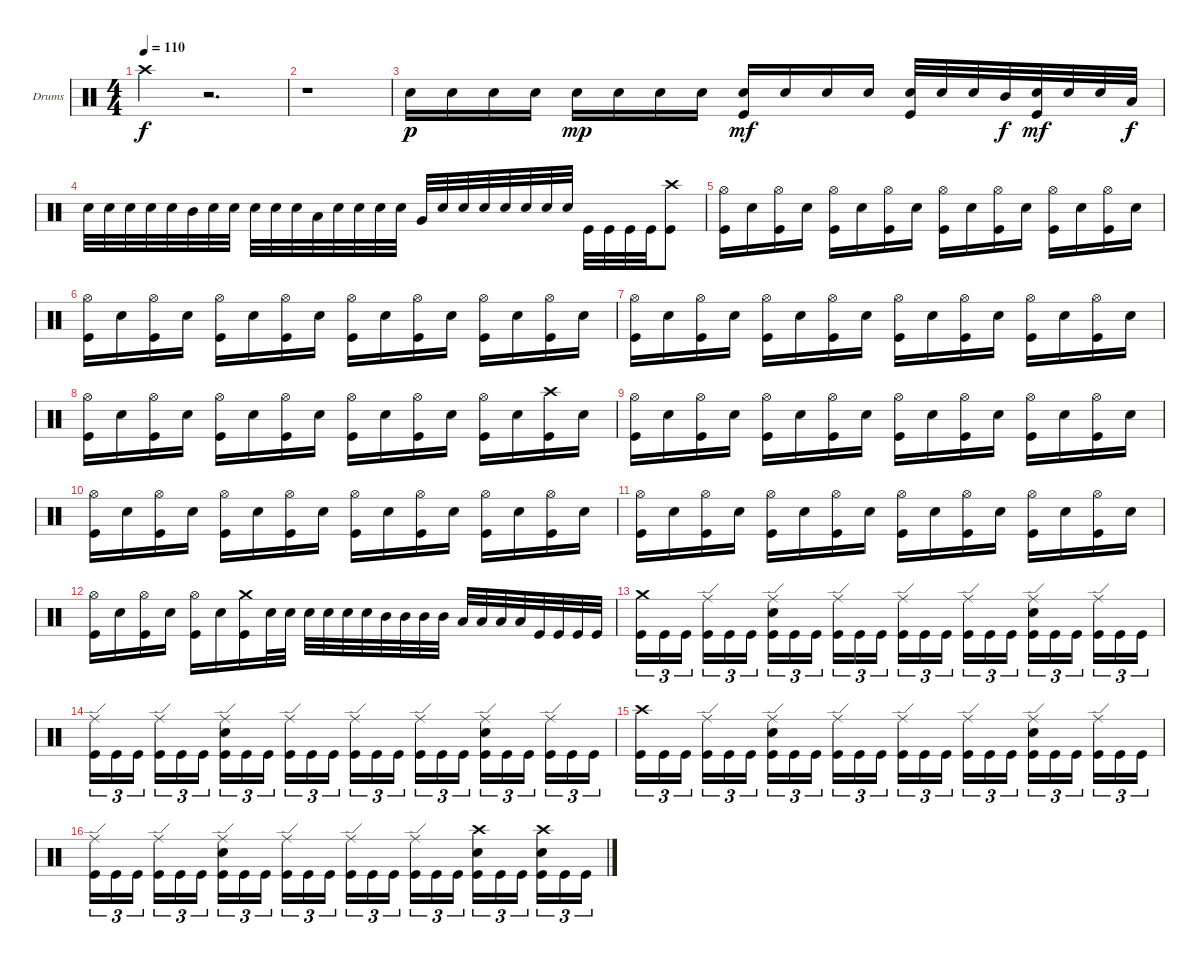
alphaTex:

\defaultSystemsLayout 4
\bracketExtendMode groupsimilarinstruments
\firstSystemTrackNameOrientation horizontal
\otherSystemsTrackNameOrientation horizontal
\track ("Drumkit" "Drums") {instrument percussion}
\staff {score}
\articulation defaults
\ts (4 4)
\tempo 110
\clef neutral
\ks c "Crash high (hit)".4{dy f}
r.2{d} |
r.1 |
"Snare (hit) 2".16{dy p} "Snare (hit) 2".16 "Snare (hit) 2".16 "Snare (hit) 2".16 "Snare (hit) 2".16{dy mp} "Snare (hit) 2".16 "Snare (hit) 2".16 "Snare (hit) 2".16 ("Snare (hit) 2" "Kick (hit)").16{dy mf} "Snare (hit) 2".16 "Snare (hit) 2".16 "Snare (hit) 2".16 ("Snare (hit) 2" "Kick (hit)").32 "Snare (hit) 2".32 "Snare (hit) 2".32 "Mid Tom (hit)".32{dy f} ("Snare (hit) 2" "Kick (hit)").32{dy mf} "Snare (hit) 2".32 "Snare (hit) 2".32 "Low Tom (hit)".32{dy f} |
"Snare (hit) 2".32 "Snare (hit) 2".32 "Snare (hit) 2".32 "Snare (hit) 2".32 "Snare (hit) 2".32 "Mid Tom (hit)".32 "Snare (hit) 2".32 "Snare (hit) 2".32 "Snare (hit) 2".32 "Snare (hit) 2".32 "Snare (hit) 2".32 "Low Tom (hit)".32 "Snare (hit) 2".32 "Snare (hit) 2".32 "Snare (hit) 2".32 "Snare (hit) 2".32 "Very Low Tom (hit)".32 "Snare (hit) 2".32 "Snare (hit) 2".32 "Snare (hit) 2".32 "Snare (hit) 2".32 "Snare (hit) 2".32 "Snare (hit) 2".32 "Snare (hit) 2".32 "Kick (hit)".32 "Kick (hit)".32 "Kick (hit)".32 "Kick (hit)".32 ("Crash high (hit)" "Kick (hit)").8 |
("Hi-Hat (open)" "Kick (hit)").16 "Snare (hit) 2".16 ("Hi-Hat (open)" "Kick (hit)").16 "Snare (hit) 2".16 ("Hi-Hat (open)" "Kick (hit)").16 "Snare (hit) 2".16 ("Hi-Hat (open)" "Kick (hit)").16 "Snare (hit) 2".16 ("Hi-Hat (open)" "Kick (hit)").16 "Snare (hit) 2".16 ("Hi-Hat (open)" "Kick (hit)").16 "Snare (hit) 2".16 ("Hi-Hat (open)" "Kick (hit)").16 "Snare (hit) 2".16 ("Hi-Hat (open)" "Kick (hit)").16 "Snare (hit) 2".16 |
("Hi-Hat (open)" "Kick (hit)").16 "Snare (hit) 2".16 ("Hi-Hat (open)" "Kick (hit)").16 "Snare (hit) 2".16 ("Hi-Hat (open)" "Kick (hit)").16 "Snare (hit) 2".16 ("Hi-Hat (open)" "Kick (hit)").16 "Snare (hit) 2".16 ("Hi-Hat (open)" "Kick (hit)").16 "Snare (hit) 2".16 ("Hi-Hat (open)" "Kick (hit)").16 "Snare (hit) 2".16 ("Hi-Hat (open)" "Kick (hit)").16 "Snare (hit) 2".16 ("Hi-Hat (open)" "Kick (hit)").16 "Snare (hit) 2".16 |
("Hi-Hat (open)" "Kick (hit)").16 "Snare (hit) 2".16 ("Hi-Hat (open)" "Kick (hit)").16 "Snare (hit) 2".16 ("Hi-Hat (open)" "Kick (hit)").16 "Snare (hit) 2".16 ("Hi-Hat (open)" "Kick (hit)").16 "Snare (hit) 2".16 ("Hi-Hat (open)" "Kick (hit)").16 "Snare (hit) 2".16 ("Hi-Hat (open)" "Kick (hit)").16 "Snare (hit) 2".16 ("Hi-Hat (open)" "Kick (hit)").16 "Snare (hit) 2".16 ("Hi-Hat (open)" "Kick (hit)").16 "Snare (hit) 2".16 |
("Hi-Hat (open)" "Kick (hit)").16 "Snare (hit) 2".16 ("Hi-Hat (open)" "Kick (hit)").16 "Snare (hit) 2".16 ("Hi-Hat (open)" "Kick (hit)").16 "Snare (hit) 2".16 ("Hi-Hat (open)" "Kick (hit)").16 "Snare (hit) 2".16 ("Hi-Hat (open)" "Kick (hit)").16 "Snare (hit) 2".16 ("Hi-Hat (open)" "Kick (hit)").16 "Snare (hit) 2".16 ("Hi-Hat (open)" "Kick (hit)").16 "Snare (hit) 2".16 ("Crash high (hit)" "Kick (hit)").16 "Snare (hit) 2".16 |
("Hi-Hat (open)" "Kick (hit)").16 "Snare (hit) 2".16 ("Hi-Hat (open)" "Kick (hit)").16 "Snare (hit) 2".16 ("Hi-Hat (open)" "Kick (hit)").16 "Snare (hit) 2".16 ("Hi-Hat (open)" "Kick (hit)").16 "Snare (hit) 2".16 ("Hi-Hat (open)" "Kick (hit)").16 "Snare (hit) 2".16 ("Hi-Hat (open)" "Kick (hit)").16 "Snare (hit) 2".16 ("Hi-Hat (open)" "Kick (hit)").16 "Snare (hit) 2".16 ("Hi-Hat (open)" "Kick (hit)").16 "Snare (hit) 2".16 |
("Hi-Hat (open)" "Kick (hit)").16 "Snare (hit) 2".16 ("Hi-Hat (open)" "Kick (hit)").16 "Snare (hit) 2".16 ("Hi-Hat (open)" "Kick (hit)").16 "Snare (hit) 2".16 ("Hi-Hat (open)" "Kick (hit)").16 "Snare (hit) 2".16 ("Hi-Hat (open)" "Kick (hit)").16 "Snare (hit) 2".16 ("Hi-Hat (open)" "Kick (hit)").16 "Snare (hit) 2".16 ("Hi-Hat (open)" "Kick (hit)").16 "Snare (hit) 2".16 ("Hi-Hat (open)" "Kick (hit)").16 "Snare (hit) 2".16 |
("Hi-Hat (open)" "Kick (hit)").16 "Snare (hit) 2".16 ("Hi-Hat (open)" "Kick (hit)").16 "Snare (hit) 2".16 ("Hi-Hat (open)" "Kick (hit)").16 "Snare (hit) 2".16 ("Hi-Hat (open)" "Kick (hit)").16 "Snare (hit) 2".16 ("Hi-Hat (open)" "Kick (hit)").16 "Snare (hit) 2".16 ("Hi-Hat (open)" "Kick (hit)").16 "Snare (hit) 2".16 ("Hi-Hat (open)" "Kick (hit)").16 "Snare (hit) 2".16 ("Hi-Hat (open)" "Kick (hit)").16 "Snare (hit) 2".16 |
("Hi-Hat (open)" "Kick (hit)").16 "Snare (hit) 2".16 ("Hi-Hat (open)" "Kick (hit)").16 "Snare (hit) 2".16 ("Hi-Hat (open)" "Kick (hit)").16 "Snare (hit) 2".16 ("Crash medium (hit)" "Kick (hit)").16 "Snare (hit) 2".32 "Snare (hit) 2".32 "Snare (hit) 2".32 "Snare (hit) 2".32 "Snare (hit) 2".32 "Snare (hit) 2".32 "Mid Tom (hit)".32 "Mid Tom (hit)".32 "Mid Tom (hit)".32 "Mid Tom (hit)".32 "Low Tom (hit)".32 "Low Tom (hit)".32 "Low Tom (hit)".32 "Low Tom (hit)".32 "Kick (hit)".32 "Kick (hit)".32 "Kick (hit)".32 "Kick (hit)".32 |
("Crash medium (hit)" "Kick (hit)").16{tu (3 2)} "Kick (hit)".16{tu (3 2)} "Kick (hit)".16{tu (3 2)} ("Ride (edge)" "Kick (hit)").16{tu (3 2)} "Kick (hit)".16{tu (3 2)} "Kick (hit)".16{tu (3 2)} ("Ride (edge)" "Snare (hit) 2" "Kick (hit)").16{tu (3 2)} "Kick (hit)".16{tu (3 2)} "Kick (hit)".16{tu (3 2)} ("Ride (edge)" "Kick (hit)").16{tu (3 2)} "Kick (hit)".16{tu (3 2)} "Kick (hit)".16{tu (3 2)} ("Ride (edge)" "Kick (hit)").16{tu (3 2)} "Kick (hit)".16{tu (3 2)} "Kick (hit)".16{tu (3 2)} ("Ride (edge)" "Kick (hit)").16{tu (3 2)} "Kick (hit)".16{tu (3 2)} "Kick (hit)".16{tu (3 2)} ("Ride (edge)" "Snare (hit) 2" "Kick (hit)").16{tu (3 2)} "Kick (hit)".16{tu (3 2)} "Kick (hit)".16{tu (3 2)} ("Ride (edge)" "Kick (hit)").16{tu (3 2)} "Kick (hit)".16{tu (3 2)} "Kick (hit)".16{tu (3 2)} |
("Ride (edge)" "Kick (hit)").16{tu (3 2)} "Kick (hit)".16{tu (3 2)} "Kick (hit)".16{tu (3 2)} ("Ride (edge)" "Kick (hit)").16{tu (3 2)} "Kick (hit)".16{tu (3 2)} "Kick (hit)".16{tu (3 2)} ("Ride (edge)" "Snare (hit) 2" "Kick (hit)").16{tu (3 2)} "Kick (hit)".16{tu (3 2)} "Kick (hit)".16{tu (3 2)} ("Ride (edge)" "Kick (hit)").16{tu (3 2)} "Kick (hit)".16{tu (3 2)} "Kick (hit)".16{tu (3 2)} ("Ride (edge)" "Kick (hit)").16{tu (3 2)} "Kick (hit)".16{tu (3 2)} "Kick (hit)".16{tu (3 2)} ("Ride (edge)" "Kick (hit)").16{tu (3 2)} "Kick (hit)".16{tu (3 2)} "Kick (hit)".16{tu (3 2)} ("Ride (edge)" "Snare (hit) 2" "Kick (hit)").16{tu (3 2)} "Kick (hit)".16{tu (3 2)} "Kick (hit)".16{tu (3 2)} ("Ride (edge)" "Kick (hit)").16{tu (3 2)} "Kick (hit)".16{tu (3 2)} "Kick (hit)".16{tu (3 2)} |
("Crash high (hit)" "Kick (hit)").16{tu (3 2)} "Kick (hit)".16{tu (3 2)} "Kick (hit)".16{tu (3 2)} ("Ride (edge)" "Kick (hit)").16{tu (3 2)} "Kick (hit)".16{tu (3 2)} "Kick (hit)".16{tu (3 2)} ("Ride (edge)" "Snare (hit) 2" "Kick (hit)").16{tu (3 2)} "Kick (hit)".16{tu (3 2)} "Kick (hit)".16{tu (3 2)} ("Ride (edge)" "Kick (hit)").16{tu (3 2)} "Kick (hit)".16{tu (3 2)} "Kick (hit)".16{tu (3 2)} ("Ride (edge)" "Kick (hit)").16{tu (3 2)} "Kick (hit)".16{tu (3 2)} "Kick (hit)".16{tu (3 2)} ("Ride (edge)" "Kick (hit)").16{tu (3 2)} "Kick (hit)".16{tu (3 2)} "Kick (hit)".16{tu (3 2)} ("Ride (edge)" "Snare (hit) 2" "Kick (hit)").16{tu (3 2)} "Kick (hit)".16{tu (3 2)} "Kick (hit)".16{tu (3 2)} ("Ride (edge)" "Kick (hit)").16{tu (3 2)} "Kick (hit)".16{tu (3 2)} "Kick (hit)".16{tu (3 2)} |
("Ride (edge)" "Kick (hit)").16{tu (3 2)} "Kick (hit)".16{tu (3 2)} "Kick (hit)".16{tu (3 2)} ("Ride (edge)" "Kick (hit)").16{tu (3 2)} "Kick (hit)".16{tu (3 2)} "Kick (hit)".16{tu (3 2)} ("Ride (edge)" "Snare (hit) 2" "Kick (hit)").16{tu (3 2)} "Kick (hit)".16{tu (3 2)} "Kick (hit)".16{tu (3 2)} ("Ride (edge)" "Kick (hit)").16{tu (3 2)} "Kick (hit)".16{tu (3 2)} "Kick (hit)".16{tu (3 2)} ("Ride (edge)" "Kick (hit)").16{tu (3 2)} "Kick (hit)".16{tu (3 2)} "Kick (hit)".16{tu (3 2)} ("Ride (edge)" "Kick (hit)").16{tu (3 2)} "Kick (hit)".16{tu (3 2)} "Kick (hit)".16{tu (3 2)} ("Crash high (hit)" "Snare (hit) 2" "Kick (hit)").16{tu (3 2)} "Kick (hit)".16{tu (3 2)} "Kick (hit)".16{tu (3 2)} ("Crash high (hit)" "Snare (hit) 2" "Kick (hit)").16{tu (3 2)} "Kick (hit)".16{tu (3 2)} "Kick (hit)".16{tu (3 2)}
